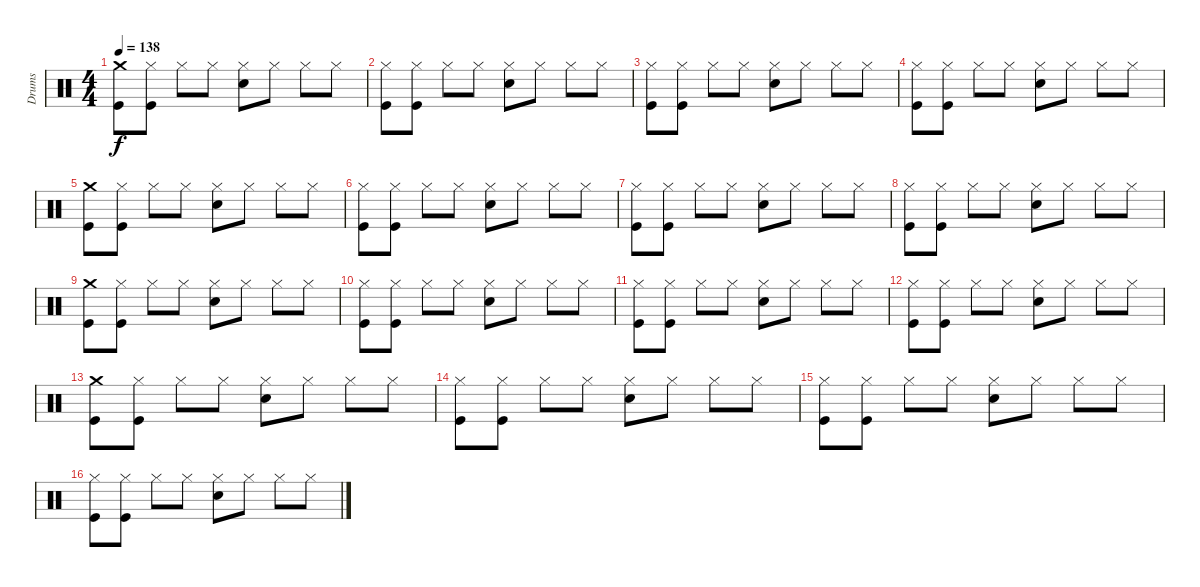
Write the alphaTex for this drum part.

\track ("Drums" "Drums") {instrument percussion}
\staff {score}
\articulation defaults
\ts (4 4)
\tempo 138
\clef neutral
\ks c
("Crash medium (hit)" "Kick (hit)").8{dy f} ("Hi-Hat (closed)" "Kick (hit)").8 "Hi-Hat (closed)".8 "Hi-Hat (closed)".8 ("Hi-Hat (closed)" "Snare (hit) 2").8 "Hi-Hat (closed)".8 "Hi-Hat (closed)".8 "Hi-Hat (closed)".8 |
("Hi-Hat (closed)" "Kick (hit)").8 ("Hi-Hat (closed)" "Kick (hit)").8 "Hi-Hat (closed)".8 "Hi-Hat (closed)".8 ("Hi-Hat (closed)" "Snare (hit) 2").8 "Hi-Hat (closed)".8 "Hi-Hat (closed)".8 "Hi-Hat (closed)".8 |
("Hi-Hat (closed)" "Kick (hit)").8 ("Hi-Hat (closed)" "Kick (hit)").8 "Hi-Hat (closed)".8 "Hi-Hat (closed)".8 ("Hi-Hat (closed)" "Snare (hit) 2").8 "Hi-Hat (closed)".8 "Hi-Hat (closed)".8 "Hi-Hat (closed)".8 |
("Hi-Hat (closed)" "Kick (hit)").8 ("Hi-Hat (closed)" "Kick (hit)").8 "Hi-Hat (closed)".8 "Hi-Hat (closed)".8 ("Hi-Hat (closed)" "Snare (hit) 2").8 "Hi-Hat (closed)".8 "Hi-Hat (closed)".8 "Hi-Hat (closed)".8 |
("Crash medium (hit)" "Kick (hit)").8 ("Hi-Hat (closed)" "Kick (hit)").8 "Hi-Hat (closed)".8 "Hi-Hat (closed)".8 ("Hi-Hat (closed)" "Snare (hit) 2").8 "Hi-Hat (closed)".8 "Hi-Hat (closed)".8 "Hi-Hat (closed)".8 |
("Hi-Hat (closed)" "Kick (hit)").8 ("Hi-Hat (closed)" "Kick (hit)").8 "Hi-Hat (closed)".8 "Hi-Hat (closed)".8 ("Hi-Hat (closed)" "Snare (hit) 2").8 "Hi-Hat (closed)".8 "Hi-Hat (closed)".8 "Hi-Hat (closed)".8 |
("Hi-Hat (closed)" "Kick (hit)").8 ("Hi-Hat (closed)" "Kick (hit)").8 "Hi-Hat (closed)".8 "Hi-Hat (closed)".8 ("Hi-Hat (closed)" "Snare (hit) 2").8 "Hi-Hat (closed)".8 "Hi-Hat (closed)".8 "Hi-Hat (closed)".8 |
("Hi-Hat (closed)" "Kick (hit)").8 ("Hi-Hat (closed)" "Kick (hit)").8 "Hi-Hat (closed)".8 "Hi-Hat (closed)".8 ("Hi-Hat (closed)" "Snare (hit) 2").8 "Hi-Hat (closed)".8 "Hi-Hat (closed)".8 "Hi-Hat (closed)".8 |
("Crash medium (hit)" "Kick (hit)").8 ("Hi-Hat (closed)" "Kick (hit)").8 "Hi-Hat (closed)".8 "Hi-Hat (closed)".8 ("Hi-Hat (closed)" "Snare (hit) 2").8 "Hi-Hat (closed)".8 "Hi-Hat (closed)".8 "Hi-Hat (closed)".8 |
("Hi-Hat (closed)" "Kick (hit)").8 ("Hi-Hat (closed)" "Kick (hit)").8 "Hi-Hat (closed)".8 "Hi-Hat (closed)".8 ("Hi-Hat (closed)" "Snare (hit) 2").8 "Hi-Hat (closed)".8 "Hi-Hat (closed)".8 "Hi-Hat (closed)".8 |
("Hi-Hat (closed)" "Kick (hit)").8 ("Hi-Hat (closed)" "Kick (hit)").8 "Hi-Hat (closed)".8 "Hi-Hat (closed)".8 ("Hi-Hat (closed)" "Snare (hit) 2").8 "Hi-Hat (closed)".8 "Hi-Hat (closed)".8 "Hi-Hat (closed)".8 |
("Hi-Hat (closed)" "Kick (hit)").8 ("Hi-Hat (closed)" "Kick (hit)").8 "Hi-Hat (closed)".8 "Hi-Hat (closed)".8 ("Hi-Hat (closed)" "Snare (hit) 2").8 "Hi-Hat (closed)".8 "Hi-Hat (closed)".8 "Hi-Hat (closed)".8 |
("Crash medium (hit)" "Kick (hit)").8 ("Hi-Hat (closed)" "Kick (hit)").8 "Hi-Hat (closed)".8 "Hi-Hat (closed)".8 ("Hi-Hat (closed)" "Snare (hit) 2").8 "Hi-Hat (closed)".8 "Hi-Hat (closed)".8 "Hi-Hat (closed)".8 |
("Hi-Hat (closed)" "Kick (hit)").8 ("Hi-Hat (closed)" "Kick (hit)").8 "Hi-Hat (closed)".8 "Hi-Hat (closed)".8 ("Hi-Hat (closed)" "Snare (hit) 2").8 "Hi-Hat (closed)".8 "Hi-Hat (closed)".8 "Hi-Hat (closed)".8 |
("Hi-Hat (closed)" "Kick (hit)").8 ("Hi-Hat (closed)" "Kick (hit)").8 "Hi-Hat (closed)".8 "Hi-Hat (closed)".8 ("Hi-Hat (closed)" "Snare (hit) 2").8 "Hi-Hat (closed)".8 "Hi-Hat (closed)".8 "Hi-Hat (closed)".8 |
("Hi-Hat (closed)" "Kick (hit)").8 ("Hi-Hat (closed)" "Kick (hit)").8 "Hi-Hat (closed)".8 "Hi-Hat (closed)".8 ("Hi-Hat (closed)" "Snare (hit) 2").8 "Hi-Hat (closed)".8 "Hi-Hat (closed)".8 "Hi-Hat (closed)".8
